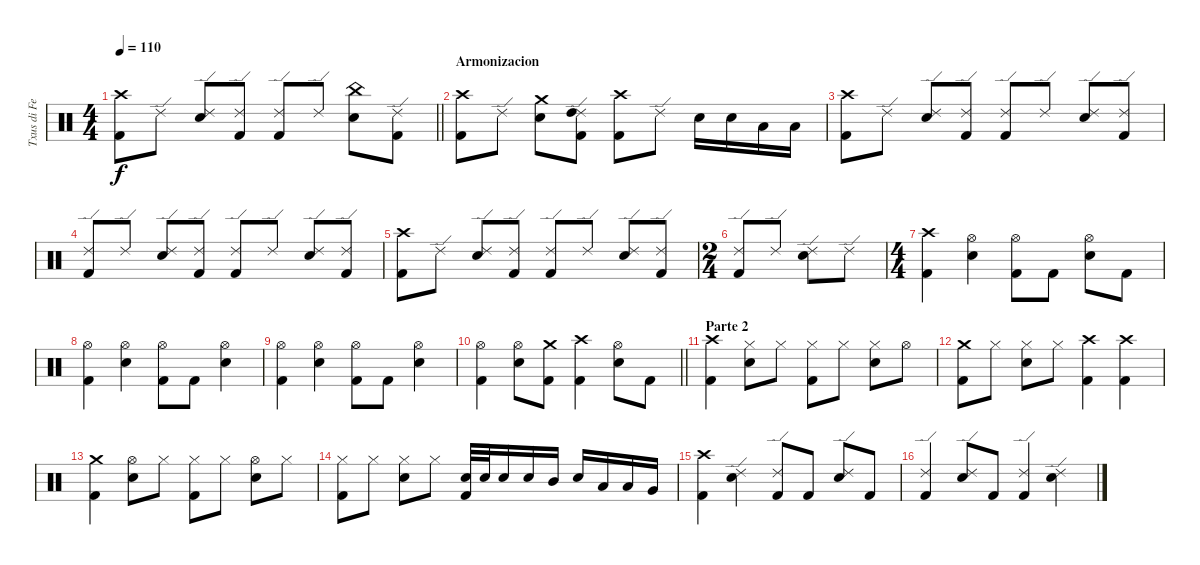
\track ("Txus di Fellatio" "Txus di Fe") {instrument percussion}
\staff {score}
\articulation defaults
\ts (4 4)
\tempo 110
\clef neutral
\barLineRight lightlight
\ks c
("Kick (hit) 2" "Crash high (hit)").8{dy f} "Ride (edge) 2".8 ("Ride (edge) 2" "Electric Snare (hit)").8 ("Kick (hit) 2" "Ride (edge) 2").8 ("Kick (hit) 2" "Ride (edge) 2").8 "Ride (edge) 2".8 ("China (hit)" "Electric Snare (hit)").8 ("Kick (hit) 2" "Ride (edge) 2").8 |
\section ("" "Armonizacion")
("Kick (hit) 2" "Crash high (hit)").8 "Ride (edge) 2".8 ("Crash medium (hit)" "Electric Snare (hit)").8 ("Kick (hit) 2" "Ride (edge) 2" "High Tom (hit)").8 ("Kick (hit) 2" "Crash high (hit)").8 "Ride (edge) 2".8 "Electric Snare (hit)".16 "Electric Snare (hit)".16 "Low Tom (hit)".16 "Low Tom (hit)".16 |
("Kick (hit) 2" "Crash high (hit)").8 "Ride (edge) 2".8 ("Ride (edge) 2" "Electric Snare (hit)").8 ("Kick (hit) 2" "Ride (edge) 2").8 ("Kick (hit) 2" "Ride (edge) 2").8 "Ride (edge) 2".8 ("Ride (edge) 2" "Electric Snare (hit)").8 ("Kick (hit) 2" "Ride (edge) 2").8 |
("Kick (hit) 2" "Ride (edge) 2").8 "Ride (edge) 2".8 ("Ride (edge) 2" "Electric Snare (hit)").8 ("Kick (hit) 2" "Ride (edge) 2").8 ("Kick (hit) 2" "Ride (edge) 2").8 "Ride (edge) 2".8 ("Ride (edge) 2" "Electric Snare (hit)").8 ("Kick (hit) 2" "Ride (edge) 2").8 |
("Kick (hit) 2" "Crash high (hit)").8 "Ride (edge) 2".8 ("Ride (edge) 2" "Electric Snare (hit)").8 ("Kick (hit) 2" "Ride (edge) 2").8 ("Kick (hit) 2" "Ride (edge) 2").8 "Ride (edge) 2".8 ("Ride (edge) 2" "Electric Snare (hit)").8 ("Kick (hit) 2" "Ride (edge) 2").8 |
\ts (2 4)
("Kick (hit) 2" "Ride (edge) 2").8 "Ride (edge) 2".8 ("Ride (edge) 2" "Electric Snare (hit)").8 "Ride (edge) 2".8 |
\ts (4 4)
("Kick (hit) 2" "Crash high (hit)").4 ("Hi-Hat (open)" "Electric Snare (hit)").4 ("Kick (hit) 2" "Hi-Hat (open)").8 "Kick (hit) 2".8 ("Hi-Hat (open)" "Electric Snare (hit)").8 "Kick (hit) 2".8 |
("Kick (hit) 2" "Hi-Hat (open)").4 ("Hi-Hat (open)" "Electric Snare (hit)").4 ("Kick (hit) 2" "Hi-Hat (open)").8 "Kick (hit) 2".8 ("Hi-Hat (open)" "Electric Snare (hit)").4 |
("Kick (hit) 2" "Hi-Hat (open)").4 ("Hi-Hat (open)" "Electric Snare (hit)").4 ("Kick (hit) 2" "Hi-Hat (open)").8 "Kick (hit) 2".8 ("Hi-Hat (open)" "Electric Snare (hit)").4 |
\barLineRight lightlight
("Kick (hit) 2" "Hi-Hat (open)").4 ("Hi-Hat (open)" "Electric Snare (hit)").8 ("Kick (hit) 2" "Crash medium (hit)").8 ("Kick (hit) 2" "Crash high (hit)").4 ("Hi-Hat (open)" "Electric Snare (hit)").8 "Kick (hit) 2".8 |
\section ("" "Parte 2")
("Kick (hit) 2" "Crash high (hit)").4 ("Hi-Hat (closed)" "Electric Snare (hit)").8 "Hi-Hat (closed)".8 ("Kick (hit) 2" "Hi-Hat (closed)").8 "Hi-Hat (closed)".8 ("Hi-Hat (closed)" "Electric Snare (hit)").8 "Hi-Hat (open)".8 |
("Kick (hit) 2" "Crash medium (hit)").8 "Hi-Hat (closed)".8 ("Hi-Hat (closed)" "Electric Snare (hit)").8 "Hi-Hat (closed)".8 ("Kick (hit) 2" "Crash high (hit)").4 ("Kick (hit) 2" "Crash high (hit)").4 |
("Kick (hit) 2" "Crash medium (hit)").4 ("Hi-Hat (open)" "Electric Snare (hit)").8 "Hi-Hat (closed)".8 ("Kick (hit) 2" "Hi-Hat (closed)").8 "Hi-Hat (closed)".8 ("Hi-Hat (open)" "Electric Snare (hit)").8 "Hi-Hat (closed)".8 |
("Kick (hit) 2" "Hi-Hat (closed)").8 "Hi-Hat (closed)".8 ("Hi-Hat (closed)" "Electric Snare (hit)").8 "Hi-Hat (closed)".8 ("Kick (hit) 2" "Electric Snare (hit)").32 "Electric Snare (hit)".32 "Electric Snare (hit)".16 "Electric Snare (hit)".16 "Mid Tom (hit)".16 "Electric Snare (hit)".16 "Low Tom (hit)".16 "Low Tom (hit)".16 "Very Low Tom (hit)".16 |
("Kick (hit) 2" "Crash high (hit)").4 ("Ride (edge) 2" "Electric Snare (hit)").4 ("Kick (hit) 2" "Ride (edge) 2").8 "Kick (hit) 2".8 ("Ride (edge) 2" "Electric Snare (hit)").8 "Kick (hit) 2".8 |
("Kick (hit) 2" "Ride (edge) 2").4 ("Ride (edge) 2" "Electric Snare (hit)").8 "Kick (hit) 2".8 ("Kick (hit) 2" "Ride (edge) 2").4 ("Ride (edge) 2" "Electric Snare (hit)").4
